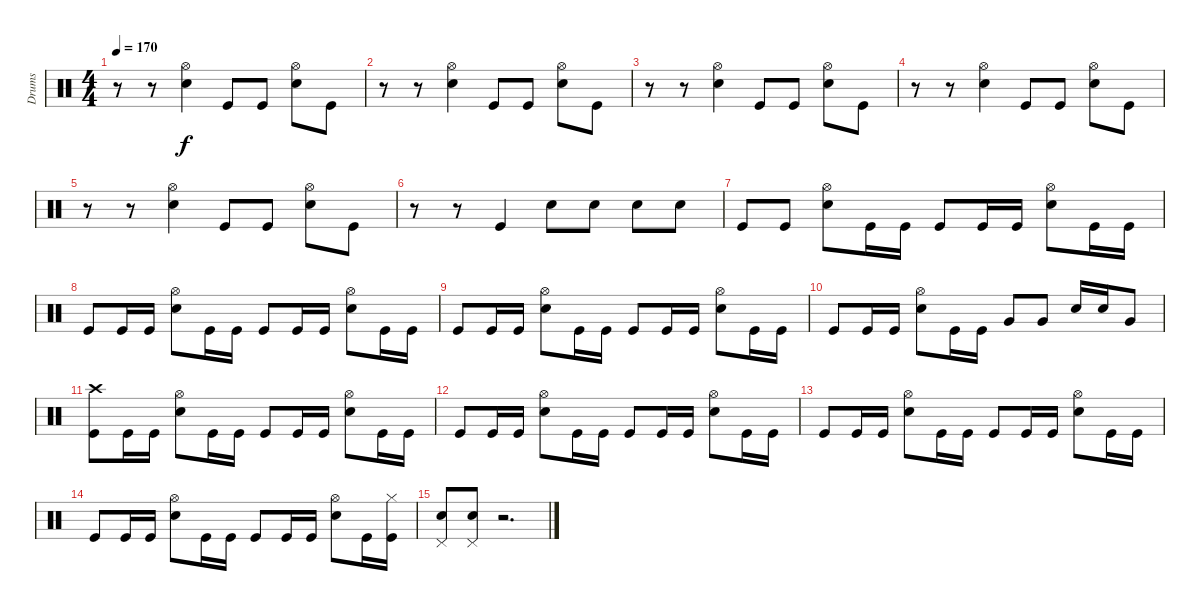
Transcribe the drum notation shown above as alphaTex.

\track ("Drums" "Drums") {instrument percussion}
\staff {score}
\articulation defaults
\ts (4 4)
\tempo 170
\clef neutral
\ks c
r.8{dy f} r.8 ("Hi-Hat (open)" "Snare (hit) 2").4 "Kick (hit)".8 "Kick (hit)".8 ("Hi-Hat (open)" "Snare (hit) 2").8 "Kick (hit)".8 |
r.8 r.8 ("Hi-Hat (open)" "Snare (hit) 2").4 "Kick (hit)".8 "Kick (hit)".8 ("Hi-Hat (open)" "Snare (hit) 2").8 "Kick (hit)".8 |
r.8 r.8 ("Hi-Hat (open)" "Snare (hit) 2").4 "Kick (hit)".8 "Kick (hit)".8 ("Hi-Hat (open)" "Snare (hit) 2").8 "Kick (hit)".8 |
r.8 r.8 ("Hi-Hat (open)" "Snare (hit) 2").4 "Kick (hit)".8 "Kick (hit)".8 ("Hi-Hat (open)" "Snare (hit) 2").8 "Kick (hit)".8 |
r.8 r.8 ("Hi-Hat (open)" "Snare (hit) 2").4 "Kick (hit)".8 "Kick (hit)".8 ("Hi-Hat (open)" "Snare (hit) 2").8 "Kick (hit)".8 |
r.8 r.8 "Kick (hit)".4 "Electric Snare (hit)".8 "Snare (hit) 2".8 "Electric Snare (hit)".8 "Snare (hit) 2".8 |
"Kick (hit)".8 "Kick (hit)".8 ("Hi-Hat (open)" "Snare (hit) 2").8 "Kick (hit)".16 "Kick (hit)".16 "Kick (hit)".8 "Kick (hit)".16 "Kick (hit)".16 ("Hi-Hat (open)" "Snare (hit) 2").8 "Kick (hit)".16 "Kick (hit)".16 |
"Kick (hit)".8 "Kick (hit)".16 "Kick (hit)".16 ("Hi-Hat (open)" "Snare (hit) 2").8 "Kick (hit)".16 "Kick (hit)".16 "Kick (hit)".8 "Kick (hit)".16 "Kick (hit)".16 ("Hi-Hat (open)" "Snare (hit) 2").8 "Kick (hit)".16 "Kick (hit)".16 |
"Kick (hit)".8 "Kick (hit)".16 "Kick (hit)".16 ("Hi-Hat (open)" "Snare (hit) 2").8 "Kick (hit)".16 "Kick (hit)".16 "Kick (hit)".8 "Kick (hit)".16 "Kick (hit)".16 ("Hi-Hat (open)" "Snare (hit) 2").8 "Kick (hit)".16 "Kick (hit)".16 |
"Kick (hit)".8 "Kick (hit)".16 "Kick (hit)".16 ("Hi-Hat (open)" "Snare (hit) 2").8 "Kick (hit)".16 "Kick (hit)".16 "Very Low Tom (hit)".8 "Very Low Tom (hit)".8 "Snare (hit) 2".16 "Snare (hit) 2".16 "Very Low Tom (hit)".8 |
("Crash high (hit)" "Kick (hit)").8 "Kick (hit)".16 "Kick (hit)".16 ("Hi-Hat (open)" "Snare (hit) 2").8 "Kick (hit)".16 "Kick (hit)".16 "Kick (hit)".8 "Kick (hit)".16 "Kick (hit)".16 ("Hi-Hat (open)" "Snare (hit) 2").8 "Kick (hit)".16 "Kick (hit)".16 |
"Kick (hit)".8 "Kick (hit)".16 "Kick (hit)".16 ("Hi-Hat (open)" "Snare (hit) 2").8 "Kick (hit)".16 "Kick (hit)".16 "Kick (hit)".8 "Kick (hit)".16 "Kick (hit)".16 ("Hi-Hat (open)" "Snare (hit) 2").8 "Kick (hit)".16 "Kick (hit)".16 |
"Kick (hit)".8 "Kick (hit)".16 "Kick (hit)".16 ("Hi-Hat (open)" "Snare (hit) 2").8 "Kick (hit)".16 "Kick (hit)".16 "Kick (hit)".8 "Kick (hit)".16 "Kick (hit)".16 ("Hi-Hat (open)" "Snare (hit) 2").8 "Kick (hit)".16 "Kick (hit)".16 |
"Kick (hit)".8 "Kick (hit)".16 "Kick (hit)".16 ("Hi-Hat (open)" "Snare (hit) 2").8 "Kick (hit)".16 "Kick (hit)".16 "Kick (hit)".8 "Kick (hit)".16 "Kick (hit)".16 ("Hi-Hat (open)" "Snare (hit) 2").8 "Kick (hit)".16 ("Hi-Hat (closed)" "Kick (hit)").16 |
("Pedal Hi-Hat (hit)" "Snare (hit) 2").8 ("Pedal Hi-Hat (hit)" "Snare (hit) 2").8 r.2{d}
